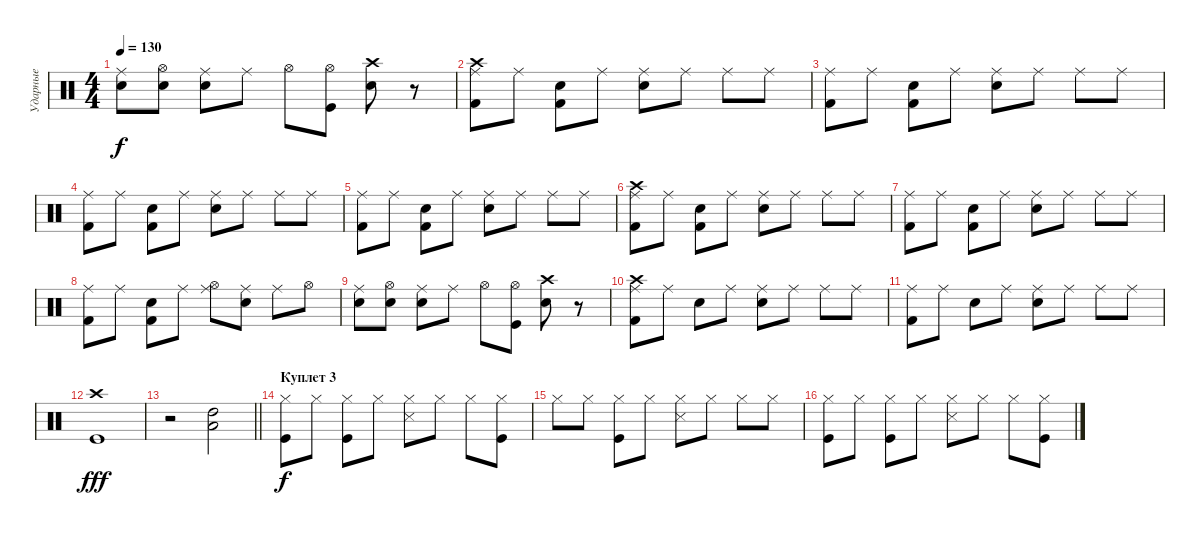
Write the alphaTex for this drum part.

\track ("Ударные" "Ударные") {instrument percussion}
\staff {score}
\articulation defaults
\ts (4 4)
\tempo 130
\clef neutral
\ks c
("Electric Snare (hit)" "Ride (middle)").8{dy f} ("Electric Snare (hit)" "Hi-Hat (open)").8 ("Electric Snare (hit)" "Ride (middle)").8 "Ride (middle)".8 "Hi-Hat (open)".8 ("Kick (hit)" "Hi-Hat (open)").8 ("Electric Snare (hit)" "Crash high (hit)").8 r.8 |
("Crash high (hit)" "Ride (middle)" "Kick (hit) 2").8 "Ride (middle)".8 ("Snare (hit)" "Kick (hit) 2").8 "Ride (middle)".8 ("Ride (middle)" "Electric Snare (hit)").8 "Ride (middle)".8 "Ride (middle)".8 "Ride (middle)".8 |
("Ride (middle)" "Kick (hit) 2").8 "Ride (middle)".8 ("Snare (hit)" "Kick (hit) 2").8 "Ride (middle)".8 ("Ride (middle)" "Electric Snare (hit)").8 "Ride (middle)".8 "Ride (middle)".8 "Ride (middle)".8 |
("Ride (middle)" "Kick (hit) 2").8 "Ride (middle)".8 ("Snare (hit)" "Kick (hit) 2").8 "Ride (middle)".8 ("Ride (middle)" "Electric Snare (hit)").8 "Ride (middle)".8 "Ride (middle)".8 "Ride (middle)".8 |
("Ride (middle)" "Kick (hit) 2").8 "Ride (middle)".8 ("Snare (hit)" "Kick (hit) 2").8 "Ride (middle)".8 ("Ride (middle)" "Electric Snare (hit)").8 "Ride (middle)".8 "Ride (middle)".8 "Ride (middle)".8 |
("Crash high (hit)" "Ride (middle)" "Kick (hit) 2").8 "Ride (middle)".8 ("Snare (hit)" "Kick (hit) 2").8 "Ride (middle)".8 ("Ride (middle)" "Electric Snare (hit)").8 "Ride (middle)".8 "Ride (middle)".8 "Ride (middle)".8 |
("Ride (middle)" "Kick (hit) 2").8 "Ride (middle)".8 ("Snare (hit)" "Kick (hit) 2").8 "Ride (middle)".8 ("Ride (middle)" "Electric Snare (hit)").8 "Ride (middle)".8 "Ride (middle)".8 "Ride (middle)".8 |
("Ride (middle)" "Kick (hit) 2").8 "Ride (middle)".8 ("Snare (hit)" "Kick (hit) 2").8 "Ride (middle)".8 ("Ride (middle)" "Hi-Hat (open)").8 ("Electric Snare (hit)" "Ride (middle)").8 "Ride (middle)".8 "Hi-Hat (open)".8 |
("Electric Snare (hit)" "Ride (middle)").8 ("Electric Snare (hit)" "Hi-Hat (open)").8 ("Electric Snare (hit)" "Ride (middle)").8 "Ride (middle)".8 "Hi-Hat (open)".8 ("Kick (hit)" "Hi-Hat (open)").8 ("Electric Snare (hit)" "Crash high (hit)").8 r.8 |
("Crash high (hit)" "Ride (middle)" "Kick (hit) 2").8 "Ride (middle)".8 "Snare (hit)".8 "Ride (middle)".8 ("Ride (middle)" "Electric Snare (hit)").8 "Ride (middle)".8 "Ride (middle)".8 "Ride (middle)".8 |
("Ride (middle)" "Kick (hit) 2").8 "Ride (middle)".8 "Snare (hit)".8 "Ride (middle)".8 ("Ride (middle)" "Electric Snare (hit)").8 "Ride (middle)".8 "Ride (middle)".8 "Ride (middle)".8 |
("Crash high (hit)" "Kick (hit)").1{dy fff} |
\barLineRight lightlight
r.2 ("High Tom (hit)" "Low Tom (hit)").2 |
\section ("" "Куплет 3")
("Hi-Hat (closed)" "Kick (hit)").8{dy f} "Hi-Hat (closed)".8 ("Hi-Hat (closed)" "Kick (hit)").8 "Hi-Hat (closed)".8 ("Hi-Hat (closed)" "Snare (side stick) 3").8 "Hi-Hat (closed)".8 "Hi-Hat (closed)".8 ("Hi-Hat (closed)" "Kick (hit)").8 |
"Hi-Hat (closed)".8 "Hi-Hat (closed)".8 ("Hi-Hat (closed)" "Kick (hit)").8 "Hi-Hat (closed)".8 ("Hi-Hat (closed)" "Snare (side stick) 3").8 "Hi-Hat (closed)".8 "Hi-Hat (closed)".8 "Hi-Hat (closed)".8 |
("Hi-Hat (closed)" "Kick (hit)").8 "Hi-Hat (closed)".8 ("Hi-Hat (closed)" "Kick (hit)").8 "Hi-Hat (closed)".8 ("Hi-Hat (closed)" "Snare (side stick) 3").8 "Hi-Hat (closed)".8 "Hi-Hat (closed)".8 ("Hi-Hat (closed)" "Kick (hit)").8
